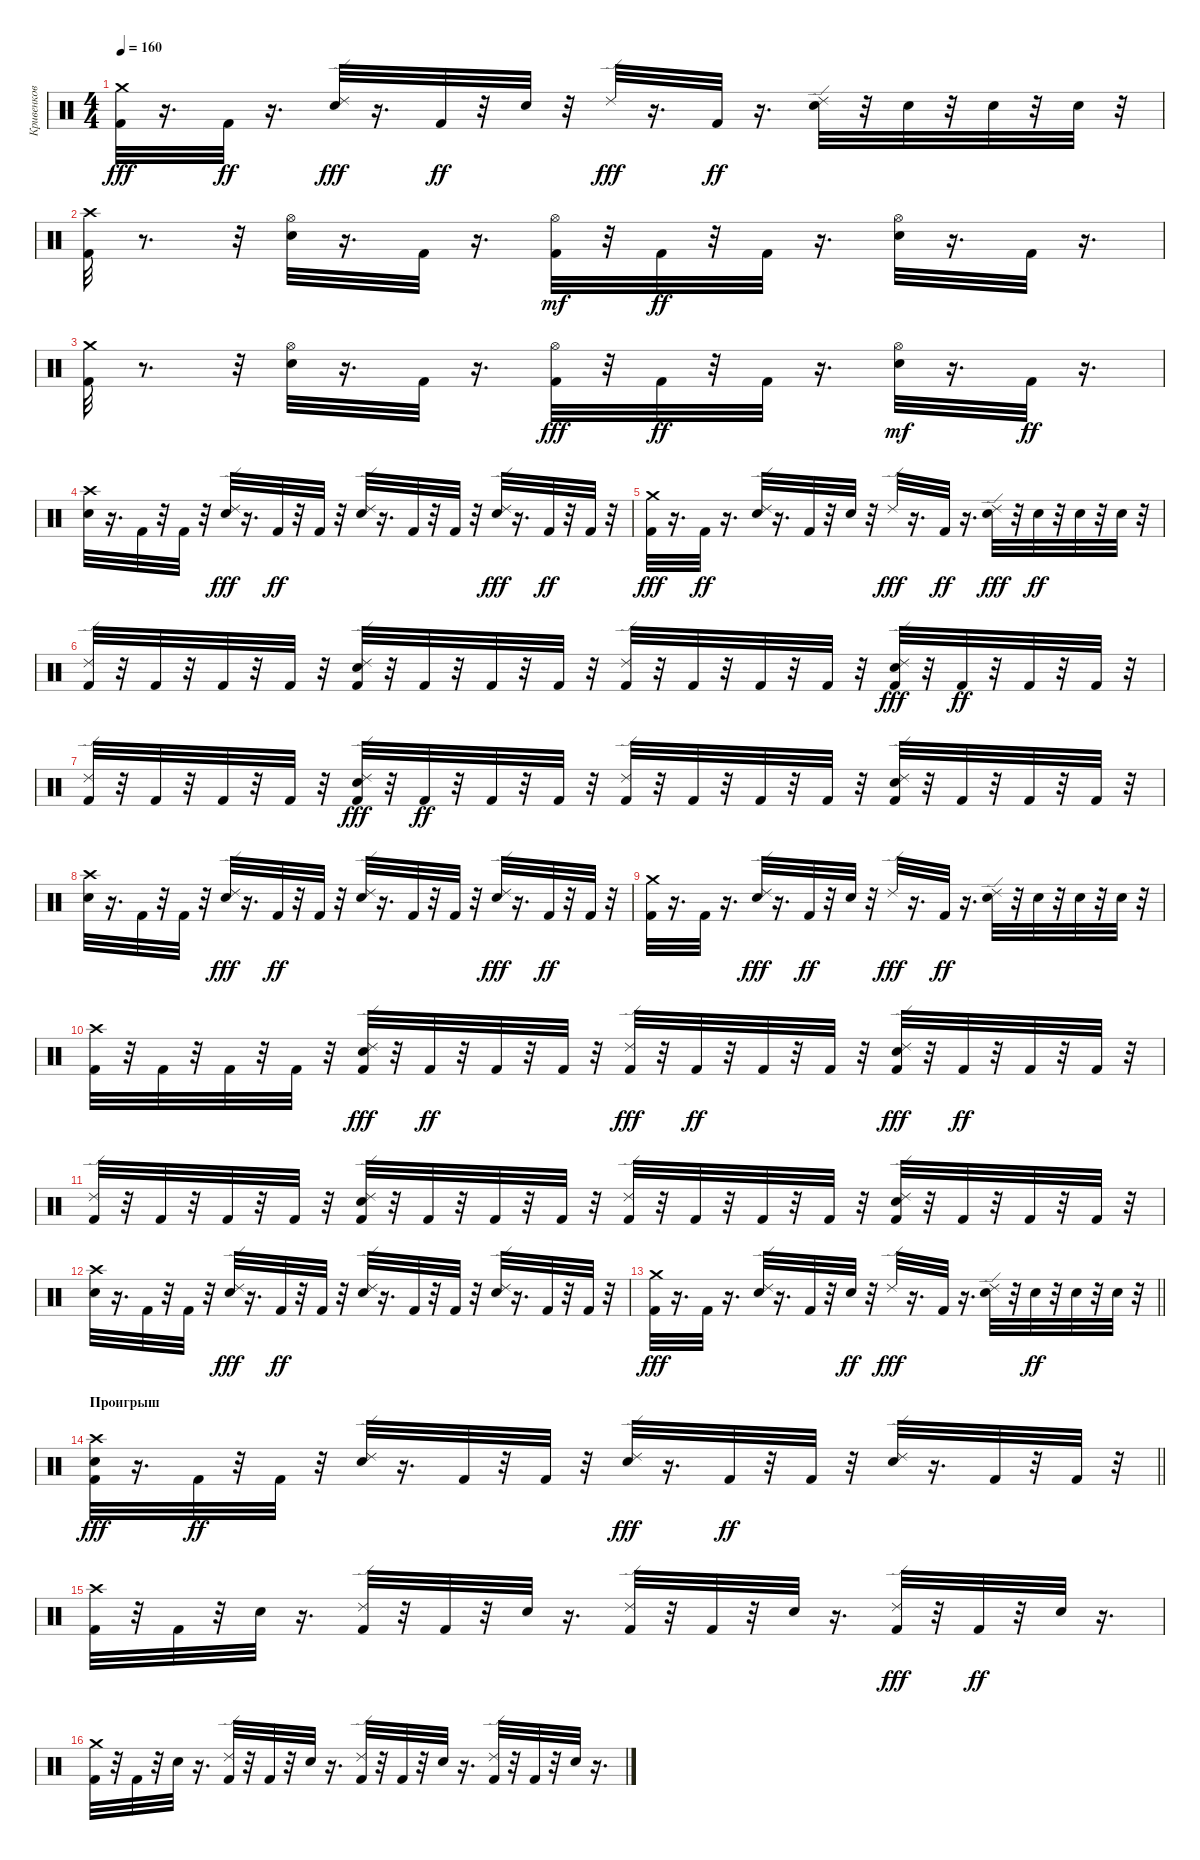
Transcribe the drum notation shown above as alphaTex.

\track ("Кривенков" "Кривенков") {instrument percussion}
\staff {score}
\articulation defaults
\ts (4 4)
\tempo 160
\clef neutral
\ks c
("Crash medium (hit)" "Kick (hit) 2").32{dy fff} r.16{d} "Kick (hit) 2".32{dy ff} r.16{d} ("Electric Snare (hit)" "Ride (edge) 2").32{dy fff} r.16{d} "Kick (hit) 2".32{dy ff} r.32 "Electric Snare (hit)".32 r.32 "Ride (edge) 2".32{dy fff} r.16{d} "Kick (hit) 2".32{dy ff} r.16{d} ("Ride (edge) 2" "Electric Snare (hit)").32 r.32 "Electric Snare (hit)".32 r.32 "Electric Snare (hit)".32 r.32 "Electric Snare (hit)".32 r.32 |
("Crash high (hit)" "Kick (hit) 2").32 r.8{d} r.32 ("Hi-Hat (open)" "Electric Snare (hit)").32 r.16{d} "Kick (hit) 2".32 r.16{d} ("Kick (hit) 2" "Hi-Hat (open)").32{dy mf} r.32 "Kick (hit) 2".32{dy ff} r.32 "Kick (hit) 2".32 r.16{d} ("Hi-Hat (open)" "Electric Snare (hit)").32 r.16{d} "Kick (hit) 2".32 r.16{d} |
("Crash medium (hit)" "Kick (hit) 2").32 r.8{d} r.32 ("Hi-Hat (open)" "Electric Snare (hit)").32 r.16{d} "Kick (hit) 2".32 r.16{d} ("Hi-Hat (open)" "Kick (hit) 2").32{dy fff} r.32 "Kick (hit) 2".32{dy ff} r.32 "Kick (hit) 2".32 r.16{d} ("Electric Snare (hit)" "Hi-Hat (open)").32{dy mf} r.16{d} "Kick (hit) 2".32{dy ff} r.16{d} |
("Crash high (hit)" "Electric Snare (hit)").32 r.16{d} "Kick (hit) 2".32 r.32 "Kick (hit) 2".32 r.32 ("Electric Snare (hit)" "Ride (edge) 2").32{dy fff} r.16{d} "Kick (hit) 2".32{dy ff} r.32 "Kick (hit) 2".32 r.32 ("Ride (edge) 2" "Electric Snare (hit)").32 r.16{d} "Kick (hit) 2".32 r.32 "Kick (hit) 2".32 r.32 ("Electric Snare (hit)" "Ride (edge) 2").32{dy fff} r.16{d} "Kick (hit) 2".32{dy ff} r.32 "Kick (hit) 2".32 r.32 |
("Kick (hit) 2" "Crash medium (hit)").32{dy fff} r.16{d} "Kick (hit) 2".32{dy ff} r.16{d} ("Ride (edge) 2" "Electric Snare (hit)").32 r.16{d} "Kick (hit) 2".32 r.32 "Electric Snare (hit)".32 r.32 "Ride (edge) 2".32{dy fff} r.16{d} "Kick (hit) 2".32{dy ff} r.16{d} ("Electric Snare (hit)" "Ride (edge) 2").32{dy fff} r.32 "Electric Snare (hit)".32{dy ff} r.32 "Electric Snare (hit)".32 r.32 "Electric Snare (hit)".32 r.32 |
("Ride (edge) 2" "Kick (hit) 2").32 r.32 "Kick (hit) 2".32 r.32 "Kick (hit) 2".32 r.32 "Kick (hit) 2".32 r.32 ("Ride (edge) 2" "Kick (hit) 2" "Electric Snare (hit)").32 r.32 "Kick (hit) 2".32 r.32 "Kick (hit) 2".32 r.32 "Kick (hit) 2".32 r.32 ("Ride (edge) 2" "Kick (hit) 2").32 r.32 "Kick (hit) 2".32 r.32 "Kick (hit) 2".32 r.32 "Kick (hit) 2".32 r.32 ("Kick (hit) 2" "Electric Snare (hit)" "Ride (edge) 2").32{dy fff} r.32 "Kick (hit) 2".32{dy ff} r.32 "Kick (hit) 2".32 r.32 "Kick (hit) 2".32 r.32 |
("Ride (edge) 2" "Kick (hit) 2").32 r.32 "Kick (hit) 2".32 r.32 "Kick (hit) 2".32 r.32 "Kick (hit) 2".32 r.32 ("Electric Snare (hit)" "Kick (hit) 2" "Ride (edge) 2").32{dy fff} r.32 "Kick (hit) 2".32{dy ff} r.32 "Kick (hit) 2".32 r.32 "Kick (hit) 2".32 r.32 ("Ride (edge) 2" "Kick (hit) 2").32 r.32 "Kick (hit) 2".32 r.32 "Kick (hit) 2".32 r.32 "Kick (hit) 2".32 r.32 ("Ride (edge) 2" "Kick (hit) 2" "Electric Snare (hit)").32 r.32 "Kick (hit) 2".32 r.32 "Kick (hit) 2".32 r.32 "Kick (hit) 2".32 r.32 |
("Crash high (hit)" "Electric Snare (hit)").32 r.16{d} "Kick (hit) 2".32 r.32 "Kick (hit) 2".32 r.32 ("Electric Snare (hit)" "Ride (edge) 2").32{dy fff} r.16{d} "Kick (hit) 2".32{dy ff} r.32 "Kick (hit) 2".32 r.32 ("Ride (edge) 2" "Electric Snare (hit)").32 r.16{d} "Kick (hit) 2".32 r.32 "Kick (hit) 2".32 r.32 ("Electric Snare (hit)" "Ride (edge) 2").32{dy fff} r.16{d} "Kick (hit) 2".32{dy ff} r.32 "Kick (hit) 2".32 r.32 |
("Kick (hit) 2" "Crash medium (hit)").32 r.16{d} "Kick (hit) 2".32 r.16{d} ("Electric Snare (hit)" "Ride (edge) 2").32{dy fff} r.16{d} "Kick (hit) 2".32{dy ff} r.32 "Electric Snare (hit)".32 r.32 "Ride (edge) 2".32{dy fff} r.16{d} "Kick (hit) 2".32{dy ff} r.16{d} ("Ride (edge) 2" "Electric Snare (hit)").32 r.32 "Electric Snare (hit)".32 r.32 "Electric Snare (hit)".32 r.32 "Electric Snare (hit)".32 r.32 |
("Crash high (hit)" "Kick (hit) 2").32 r.32 "Kick (hit) 2".32 r.32 "Kick (hit) 2".32 r.32 "Kick (hit) 2".32 r.32 ("Kick (hit) 2" "Electric Snare (hit)" "Ride (edge) 2").32{dy fff} r.32 "Kick (hit) 2".32{dy ff} r.32 "Kick (hit) 2".32 r.32 "Kick (hit) 2".32 r.32 ("Kick (hit) 2" "Ride (edge) 2").32{dy fff} r.32 "Kick (hit) 2".32{dy ff} r.32 "Kick (hit) 2".32 r.32 "Kick (hit) 2".32 r.32 ("Electric Snare (hit)" "Kick (hit) 2" "Ride (edge) 2").32{dy fff} r.32 "Kick (hit) 2".32{dy ff} r.32 "Kick (hit) 2".32 r.32 "Kick (hit) 2".32 r.32 |
("Ride (edge) 2" "Kick (hit) 2").32 r.32 "Kick (hit) 2".32 r.32 "Kick (hit) 2".32 r.32 "Kick (hit) 2".32 r.32 ("Ride (edge) 2" "Electric Snare (hit)" "Kick (hit) 2").32 r.32 "Kick (hit) 2".32 r.32 "Kick (hit) 2".32 r.32 "Kick (hit) 2".32 r.32 ("Ride (edge) 2" "Kick (hit) 2").32 r.32 "Kick (hit) 2".32 r.32 "Kick (hit) 2".32 r.32 "Kick (hit) 2".32 r.32 ("Kick (hit) 2" "Ride (edge) 2" "Electric Snare (hit)").32 r.32 "Kick (hit) 2".32 r.32 "Kick (hit) 2".32 r.32 "Kick (hit) 2".32 r.32 |
("Crash high (hit)" "Electric Snare (hit)").32 r.16{d} "Kick (hit) 2".32 r.32 "Kick (hit) 2".32 r.32 ("Electric Snare (hit)" "Ride (edge) 2").32{dy fff} r.16{d} "Kick (hit) 2".32{dy ff} r.32 "Kick (hit) 2".32 r.32 ("Ride (edge) 2" "Electric Snare (hit)").32 r.16{d} "Kick (hit) 2".32 r.32 "Kick (hit) 2".32 r.32 ("Ride (edge) 2" "Electric Snare (hit)").32 r.16{d} "Kick (hit) 2".32 r.32 "Kick (hit) 2".32 r.32 |
\barLineRight lightlight
("Crash medium (hit)" "Kick (hit) 2").32{dy fff} r.16{d} "Kick (hit) 2".32 r.16{d} ("Electric Snare (hit)" "Ride (edge) 2").32 r.16{d} "Kick (hit) 2".32 r.32 "Electric Snare (hit)".32{dy ff} r.32 "Ride (edge) 2".32{dy fff} r.16{d} "Kick (hit) 2".32 r.16{d} ("Electric Snare (hit)" "Ride (edge) 2").32 r.32 "Electric Snare (hit)".32{dy ff} r.32 "Electric Snare (hit)".32 r.32 "Electric Snare (hit)".32 r.32 |
\section ("" "Проигрыш")
\barLineRight lightlight
("Electric Snare (hit)" "Crash high (hit)" "Kick (hit) 2").32{dy fff} r.16{d} "Kick (hit) 2".32{dy ff} r.32 "Kick (hit) 2".32 r.32 ("Ride (edge) 2" "Electric Snare (hit)").32 r.16{d} "Kick (hit) 2".32 r.32 "Kick (hit) 2".32 r.32 ("Electric Snare (hit)" "Ride (edge) 2").32{dy fff} r.16{d} "Kick (hit) 2".32{dy ff} r.32 "Kick (hit) 2".32 r.32 ("Ride (edge) 2" "Electric Snare (hit)").32 r.16{d} "Kick (hit) 2".32 r.32 "Kick (hit) 2".32 r.32 |
("Crash high (hit)" "Kick (hit) 2").32 r.32 "Kick (hit) 2".32 r.32 "Electric Snare (hit)".32 r.16{d} ("Ride (edge) 2" "Kick (hit) 2").32 r.32 "Kick (hit) 2".32 r.32 "Electric Snare (hit)".32 r.16{d} ("Ride (edge) 2" "Kick (hit) 2").32 r.32 "Kick (hit) 2".32 r.32 "Electric Snare (hit)".32 r.16{d} ("Kick (hit) 2" "Ride (edge) 2").32{dy fff} r.32 "Kick (hit) 2".32{dy ff} r.32 "Electric Snare (hit)".32 r.16{d} |
("Crash medium (hit)" "Kick (hit) 2").32 r.32 "Kick (hit) 2".32 r.32 "Electric Snare (hit)".32 r.16{d} ("Ride (edge) 2" "Kick (hit) 2").32 r.32 "Kick (hit) 2".32 r.32 "Electric Snare (hit)".32 r.16{d} ("Ride (edge) 2" "Kick (hit) 2").32 r.32 "Kick (hit) 2".32 r.32 "Electric Snare (hit)".32 r.16{d} ("Ride (edge) 2" "Kick (hit) 2").32 r.32 "Kick (hit) 2".32 r.32 "Electric Snare (hit)".32 r.16{d}
